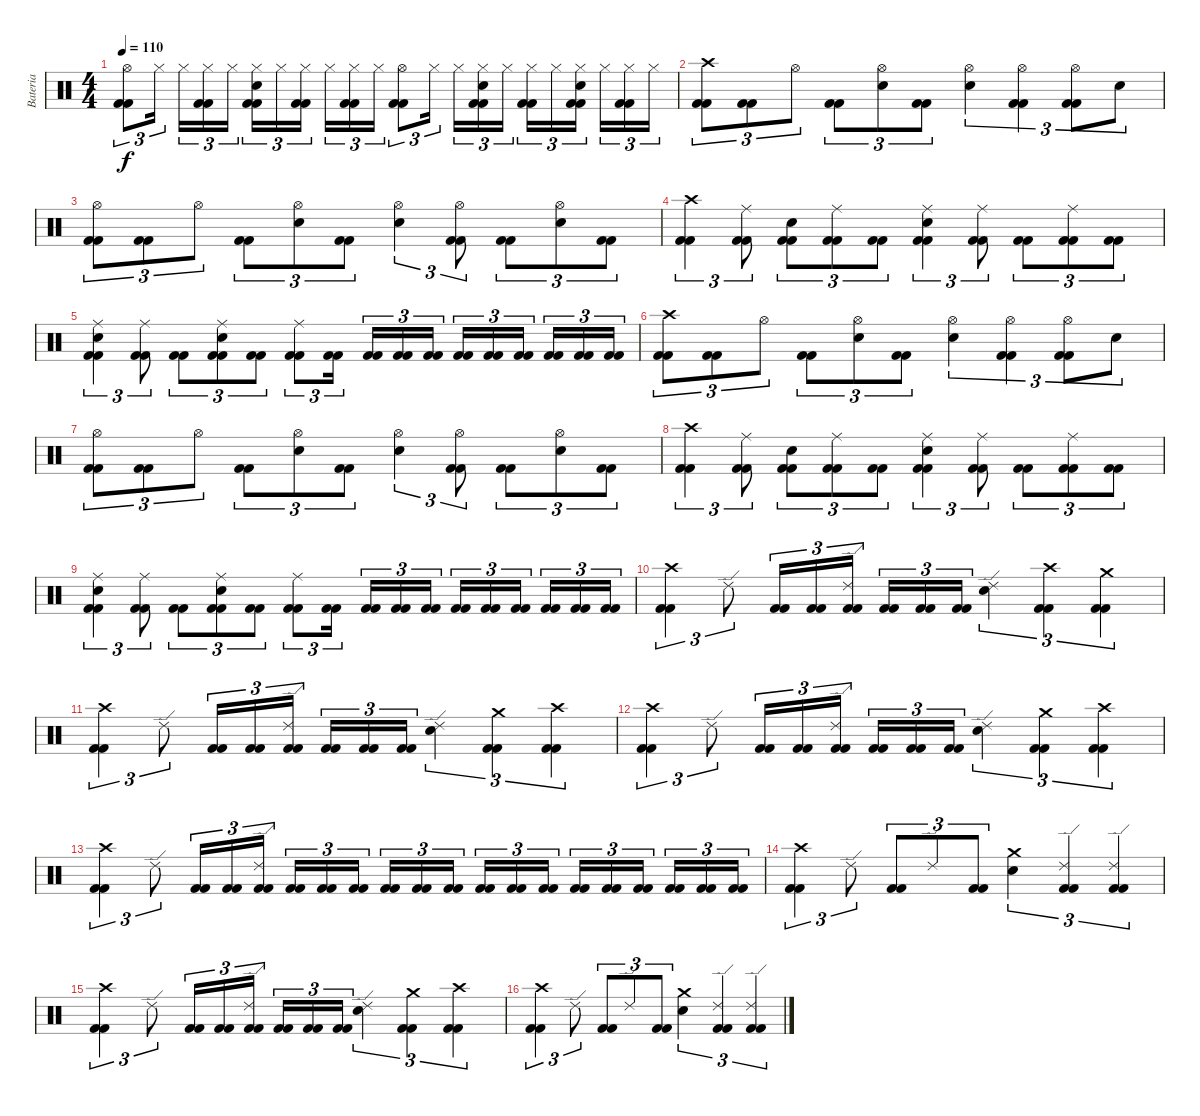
\track ("Bateria" "Bateria") {instrument percussion}
\staff {score}
\articulation defaults
\ts (4 4)
\tempo 110
\clef neutral
\ks c
("Hi-Hat (open)" "Kick (hit) 2" "Kick (hit) 2").8{tu (3 2) dy f} "Hi-Hat (closed)".16{tu (3 2)} "Hi-Hat (closed)".16{tu (3 2)} ("Hi-Hat (closed)" "Kick (hit) 2" "Kick (hit) 2").16{tu (3 2)} "Hi-Hat (closed)".16{tu (3 2)} ("Hi-Hat (closed)" "Electric Snare (hit)" "Kick (hit) 2" "Kick (hit) 2").16{tu (3 2)} "Hi-Hat (closed)".16{tu (3 2)} ("Hi-Hat (closed)" "Kick (hit) 2" "Kick (hit) 2").16{tu (3 2)} "Hi-Hat (closed)".16{tu (3 2)} ("Hi-Hat (closed)" "Kick (hit) 2" "Kick (hit) 2").16{tu (3 2)} "Hi-Hat (closed)".16{tu (3 2)} ("Hi-Hat (open)" "Kick (hit) 2" "Kick (hit) 2").8{tu (3 2)} "Hi-Hat (closed)".16{tu (3 2)} "Hi-Hat (closed)".16{tu (3 2)} ("Hi-Hat (closed)" "Electric Snare (hit)" "Kick (hit) 2" "Kick (hit) 2").16{tu (3 2)} "Hi-Hat (closed)".16{tu (3 2)} ("Hi-Hat (closed)" "Kick (hit) 2" "Kick (hit) 2").16{tu (3 2)} "Hi-Hat (closed)".16{tu (3 2)} ("Hi-Hat (closed)" "Electric Snare (hit)" "Kick (hit) 2" "Kick (hit) 2").16{tu (3 2)} "Hi-Hat (closed)".16{tu (3 2)} ("Hi-Hat (closed)" "Kick (hit) 2" "Kick (hit) 2").16{tu (3 2)} "Hi-Hat (closed)".16{tu (3 2)} |
("Crash high (hit)" "Kick (hit) 2" "Kick (hit) 2").8{tu (3 2)} ("Kick (hit) 2" "Kick (hit) 2").8{tu (3 2)} "Hi-Hat (open)".8{tu (3 2)} ("Kick (hit) 2" "Kick (hit) 2").8{tu (3 2)} ("Hi-Hat (open)" "Electric Snare (hit)").8{tu (3 2)} ("Kick (hit) 2" "Kick (hit) 2").8{tu (3 2)} ("Hi-Hat (open)" "Electric Snare (hit)").4{tu (3 2)} ("Hi-Hat (open)" "Kick (hit) 2" "Kick (hit) 2").4{tu (3 2)} ("Hi-Hat (open)" "Kick (hit) 2" "Kick (hit) 2").8{tu (3 2)} "Electric Snare (hit)".8{tu (3 2)} |
("Hi-Hat (open)" "Kick (hit) 2" "Kick (hit) 2").8{tu (3 2)} ("Kick (hit) 2" "Kick (hit) 2").8{tu (3 2)} "Hi-Hat (open)".8{tu (3 2)} ("Kick (hit) 2" "Kick (hit) 2").8{tu (3 2)} ("Hi-Hat (open)" "Electric Snare (hit)").8{tu (3 2)} ("Kick (hit) 2" "Kick (hit) 2").8{tu (3 2)} ("Hi-Hat (open)" "Electric Snare (hit)").4{tu (3 2)} ("Hi-Hat (open)" "Kick (hit) 2" "Kick (hit) 2").8{tu (3 2)} ("Kick (hit) 2" "Kick (hit) 2").8{tu (3 2)} ("Hi-Hat (open)" "Electric Snare (hit)").8{tu (3 2)} ("Kick (hit) 2" "Kick (hit) 2").8{tu (3 2)} |
("Crash high (hit)" "Kick (hit) 2" "Kick (hit) 2").4{tu (3 2)} ("Ride (middle)" "Kick (hit) 2" "Kick (hit) 2").8{tu (3 2)} ("Electric Snare (hit)" "Kick (hit) 2" "Kick (hit) 2").8{tu (3 2)} ("Ride (middle)" "Kick (hit) 2" "Kick (hit) 2").8{tu (3 2)} ("Kick (hit) 2" "Kick (hit) 2").8{tu (3 2)} ("Ride (middle)" "Electric Snare (hit)" "Kick (hit) 2" "Kick (hit) 2").4{tu (3 2)} ("Ride (middle)" "Kick (hit) 2" "Kick (hit) 2").8{tu (3 2)} ("Kick (hit) 2" "Kick (hit) 2").8{tu (3 2)} ("Ride (middle)" "Kick (hit) 2" "Kick (hit) 2").8{tu (3 2)} ("Kick (hit) 2" "Kick (hit) 2").8{tu (3 2)} |
("Ride (middle)" "Electric Snare (hit)" "Kick (hit) 2" "Kick (hit) 2").4{tu (3 2)} ("Ride (middle)" "Kick (hit) 2" "Kick (hit) 2").8{tu (3 2)} ("Kick (hit) 2" "Kick (hit) 2").8{tu (3 2)} ("Ride (middle)" "Electric Snare (hit)" "Kick (hit) 2" "Kick (hit) 2").8{tu (3 2)} ("Kick (hit) 2" "Kick (hit) 2").8{tu (3 2)} ("Ride (middle)" "Kick (hit) 2" "Kick (hit) 2").8{tu (3 2)} ("Kick (hit) 2" "Kick (hit) 2").16{tu (3 2)} ("Kick (hit) 2" "Kick (hit) 2").16{tu (3 2)} ("Kick (hit) 2" "Kick (hit) 2").16{tu (3 2)} ("Kick (hit) 2" "Kick (hit) 2").16{tu (3 2)} ("Kick (hit) 2" "Kick (hit) 2").16{tu (3 2)} ("Kick (hit) 2" "Kick (hit) 2").16{tu (3 2)} ("Kick (hit) 2" "Kick (hit) 2").16{tu (3 2)} ("Kick (hit) 2" "Kick (hit) 2").16{tu (3 2)} ("Kick (hit) 2" "Kick (hit) 2").16{tu (3 2)} ("Kick (hit) 2" "Kick (hit) 2").16{tu (3 2)} |
("Crash high (hit)" "Kick (hit) 2" "Kick (hit) 2").8{tu (3 2)} ("Kick (hit) 2" "Kick (hit) 2").8{tu (3 2)} "Hi-Hat (open)".8{tu (3 2)} ("Kick (hit) 2" "Kick (hit) 2").8{tu (3 2)} ("Hi-Hat (open)" "Electric Snare (hit)").8{tu (3 2)} ("Kick (hit) 2" "Kick (hit) 2").8{tu (3 2)} ("Hi-Hat (open)" "Electric Snare (hit)").4{tu (3 2)} ("Hi-Hat (open)" "Kick (hit) 2" "Kick (hit) 2").4{tu (3 2)} ("Hi-Hat (open)" "Kick (hit) 2" "Kick (hit) 2").8{tu (3 2)} "Electric Snare (hit)".8{tu (3 2)} |
("Hi-Hat (open)" "Kick (hit) 2" "Kick (hit) 2").8{tu (3 2)} ("Kick (hit) 2" "Kick (hit) 2").8{tu (3 2)} "Hi-Hat (open)".8{tu (3 2)} ("Kick (hit) 2" "Kick (hit) 2").8{tu (3 2)} ("Hi-Hat (open)" "Electric Snare (hit)").8{tu (3 2)} ("Kick (hit) 2" "Kick (hit) 2").8{tu (3 2)} ("Hi-Hat (open)" "Electric Snare (hit)").4{tu (3 2)} ("Hi-Hat (open)" "Kick (hit) 2" "Kick (hit) 2").8{tu (3 2)} ("Kick (hit) 2" "Kick (hit) 2").8{tu (3 2)} ("Hi-Hat (open)" "Electric Snare (hit)").8{tu (3 2)} ("Kick (hit) 2" "Kick (hit) 2").8{tu (3 2)} |
("Crash high (hit)" "Kick (hit) 2" "Kick (hit) 2").4{tu (3 2)} ("Ride (middle)" "Kick (hit) 2" "Kick (hit) 2").8{tu (3 2)} ("Electric Snare (hit)" "Kick (hit) 2" "Kick (hit) 2").8{tu (3 2)} ("Ride (middle)" "Kick (hit) 2" "Kick (hit) 2").8{tu (3 2)} ("Kick (hit) 2" "Kick (hit) 2").8{tu (3 2)} ("Ride (middle)" "Electric Snare (hit)" "Kick (hit) 2" "Kick (hit) 2").4{tu (3 2)} ("Ride (middle)" "Kick (hit) 2" "Kick (hit) 2").8{tu (3 2)} ("Kick (hit) 2" "Kick (hit) 2").8{tu (3 2)} ("Ride (middle)" "Kick (hit) 2" "Kick (hit) 2").8{tu (3 2)} ("Kick (hit) 2" "Kick (hit) 2").8{tu (3 2)} |
("Ride (middle)" "Electric Snare (hit)" "Kick (hit) 2" "Kick (hit) 2").4{tu (3 2)} ("Ride (middle)" "Kick (hit) 2" "Kick (hit) 2").8{tu (3 2)} ("Kick (hit) 2" "Kick (hit) 2").8{tu (3 2)} ("Ride (middle)" "Electric Snare (hit)" "Kick (hit) 2" "Kick (hit) 2").8{tu (3 2)} ("Kick (hit) 2" "Kick (hit) 2").8{tu (3 2)} ("Ride (middle)" "Kick (hit) 2" "Kick (hit) 2").8{tu (3 2)} ("Kick (hit) 2" "Kick (hit) 2").16{tu (3 2)} ("Kick (hit) 2" "Kick (hit) 2").16{tu (3 2)} ("Kick (hit) 2" "Kick (hit) 2").16{tu (3 2)} ("Kick (hit) 2" "Kick (hit) 2").16{tu (3 2)} ("Kick (hit) 2" "Kick (hit) 2").16{tu (3 2)} ("Kick (hit) 2" "Kick (hit) 2").16{tu (3 2)} ("Kick (hit) 2" "Kick (hit) 2").16{tu (3 2)} ("Kick (hit) 2" "Kick (hit) 2").16{tu (3 2)} ("Kick (hit) 2" "Kick (hit) 2").16{tu (3 2)} ("Kick (hit) 2" "Kick (hit) 2").16{tu (3 2)} |
("Crash high (hit)" "Kick (hit) 2" "Kick (hit) 2").4{tu (3 2)} "Ride (edge) 2".8{tu (3 2)} ("Kick (hit) 2" "Kick (hit) 2").16{tu (3 2)} ("Kick (hit) 2" "Kick (hit) 2").16{tu (3 2)} ("Ride (edge) 2" "Kick (hit) 2" "Kick (hit) 2").16{tu (3 2)} ("Kick (hit) 2" "Kick (hit) 2").16{tu (3 2)} ("Kick (hit) 2" "Kick (hit) 2").16{tu (3 2)} ("Kick (hit) 2" "Kick (hit) 2").16{tu (3 2)} ("Ride (edge) 2" "Electric Snare (hit)").4{tu (3 2)} ("Crash high (hit)" "Kick (hit) 2" "Kick (hit) 2").4{tu (3 2)} ("Crash medium (hit)" "Kick (hit) 2" "Kick (hit) 2").4{tu (3 2)} |
("Crash high (hit)" "Kick (hit) 2" "Kick (hit) 2").4{tu (3 2)} "Ride (edge) 2".8{tu (3 2)} ("Kick (hit) 2" "Kick (hit) 2").16{tu (3 2)} ("Kick (hit) 2" "Kick (hit) 2").16{tu (3 2)} ("Ride (edge) 2" "Kick (hit) 2" "Kick (hit) 2").16{tu (3 2)} ("Kick (hit) 2" "Kick (hit) 2").16{tu (3 2)} ("Kick (hit) 2" "Kick (hit) 2").16{tu (3 2)} ("Kick (hit) 2" "Kick (hit) 2").16{tu (3 2)} ("Ride (edge) 2" "Electric Snare (hit)").4{tu (3 2)} ("Crash medium (hit)" "Kick (hit) 2" "Kick (hit) 2").4{tu (3 2)} ("Crash high (hit)" "Kick (hit) 2" "Kick (hit) 2").4{tu (3 2)} |
("Crash high (hit)" "Kick (hit) 2" "Kick (hit) 2").4{tu (3 2)} "Ride (edge) 2".8{tu (3 2)} ("Kick (hit) 2" "Kick (hit) 2").16{tu (3 2)} ("Kick (hit) 2" "Kick (hit) 2").16{tu (3 2)} ("Ride (edge) 2" "Kick (hit) 2" "Kick (hit) 2").16{tu (3 2)} ("Kick (hit) 2" "Kick (hit) 2").16{tu (3 2)} ("Kick (hit) 2" "Kick (hit) 2").16{tu (3 2)} ("Kick (hit) 2" "Kick (hit) 2").16{tu (3 2)} ("Ride (edge) 2" "Electric Snare (hit)").4{tu (3 2)} ("Crash medium (hit)" "Kick (hit) 2" "Kick (hit) 2").4{tu (3 2)} ("Crash high (hit)" "Kick (hit) 2" "Kick (hit) 2").4{tu (3 2)} |
("Crash high (hit)" "Kick (hit) 2" "Kick (hit) 2").4{tu (3 2)} "Ride (edge) 2".8{tu (3 2)} ("Kick (hit) 2" "Kick (hit) 2").16{tu (3 2)} ("Kick (hit) 2" "Kick (hit) 2").16{tu (3 2)} ("Ride (edge) 2" "Kick (hit) 2" "Kick (hit) 2").16{tu (3 2)} ("Kick (hit) 2" "Kick (hit) 2").16{tu (3 2)} ("Kick (hit) 2" "Kick (hit) 2").16{tu (3 2)} ("Kick (hit) 2" "Kick (hit) 2").16{tu (3 2)} ("Kick (hit) 2" "Kick (hit) 2").16{tu (3 2)} ("Kick (hit) 2" "Kick (hit) 2").16{tu (3 2)} ("Kick (hit) 2" "Kick (hit) 2").16{tu (3 2)} ("Kick (hit) 2" "Kick (hit) 2").16{tu (3 2)} ("Kick (hit) 2" "Kick (hit) 2").16{tu (3 2)} ("Kick (hit) 2" "Kick (hit) 2").16{tu (3 2)} ("Kick (hit) 2" "Kick (hit) 2").16{tu (3 2)} ("Kick (hit) 2" "Kick (hit) 2").16{tu (3 2)} ("Kick (hit) 2" "Kick (hit) 2").16{tu (3 2)} ("Kick (hit) 2" "Kick (hit) 2").16{tu (3 2)} ("Kick (hit) 2" "Kick (hit) 2").16{tu (3 2)} ("Kick (hit) 2" "Kick (hit) 2").16{tu (3 2)} |
("Crash high (hit)" "Kick (hit) 2" "Kick (hit) 2").4{tu (3 2)} "Ride (edge) 2".8{tu (3 2)} ("Kick (hit) 2" "Kick (hit) 2").8{tu (3 2)} "Ride (edge) 2".8{tu (3 2)} ("Kick (hit) 2" "Kick (hit) 2").8{tu (3 2)} ("Crash medium (hit)" "Electric Snare (hit)").4{tu (3 2)} ("Ride (edge) 2" "Kick (hit) 2" "Kick (hit) 2").4{tu (3 2)} ("Ride (edge) 2" "Kick (hit) 2" "Kick (hit) 2").4{tu (3 2)} |
("Crash high (hit)" "Kick (hit) 2" "Kick (hit) 2").4{tu (3 2)} "Ride (edge) 2".8{tu (3 2)} ("Kick (hit) 2" "Kick (hit) 2").16{tu (3 2)} ("Kick (hit) 2" "Kick (hit) 2").16{tu (3 2)} ("Ride (edge) 2" "Kick (hit) 2" "Kick (hit) 2").16{tu (3 2)} ("Kick (hit) 2" "Kick (hit) 2").16{tu (3 2)} ("Kick (hit) 2" "Kick (hit) 2").16{tu (3 2)} ("Kick (hit) 2" "Kick (hit) 2").16{tu (3 2)} ("Ride (edge) 2" "Electric Snare (hit)").4{tu (3 2)} ("Crash medium (hit)" "Kick (hit) 2" "Kick (hit) 2").4{tu (3 2)} ("Crash high (hit)" "Kick (hit) 2" "Kick (hit) 2").4{tu (3 2)} |
("Crash high (hit)" "Kick (hit) 2" "Kick (hit) 2").4{tu (3 2)} "Ride (edge) 2".8{tu (3 2)} ("Kick (hit) 2" "Kick (hit) 2").8{tu (3 2)} "Ride (edge) 2".8{tu (3 2)} ("Kick (hit) 2" "Kick (hit) 2").8{tu (3 2)} ("Crash medium (hit)" "Electric Snare (hit)").4{tu (3 2)} ("Ride (edge) 2" "Kick (hit) 2" "Kick (hit) 2").4{tu (3 2)} ("Ride (edge) 2" "Kick (hit) 2" "Kick (hit) 2").4{tu (3 2)}
